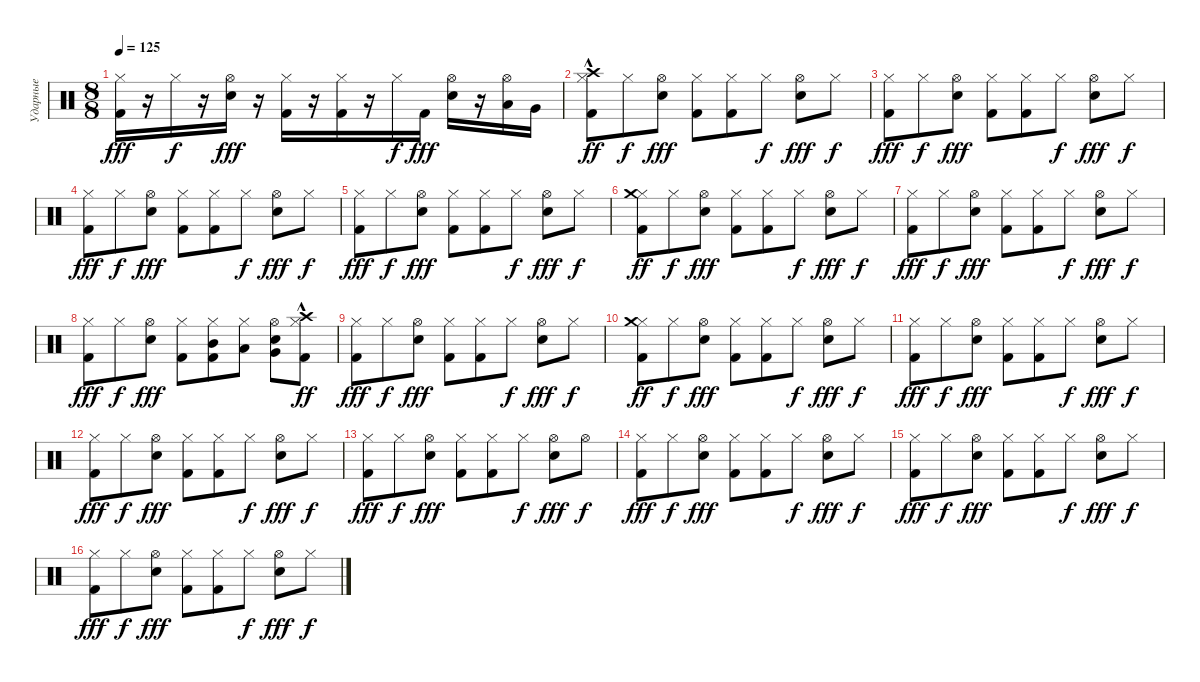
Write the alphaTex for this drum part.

\track ("Ударные" "Ударные") {instrument percussion}
\staff {score}
\articulation defaults
\ts (8 8)
\tempo 125
\clef neutral
\ks c
("Kick (hit) 2" "Hi-Hat (closed)").16{dy fff} r.16 "Hi-Hat (closed)".16{dy f} r.16 ("Hi-Hat (open)" "Snare (hit) 2").16{dy fff} r.16 ("Kick (hit) 2" "Hi-Hat (closed)").16 r.16 ("Kick (hit) 2" "Hi-Hat (closed)").16 r.16 "Hi-Hat (closed)".16{dy f} "Kick (hit) 2".16{dy fff} ("Hi-Hat (open)" "Snare (hit) 2").16 r.16 ("Hi-Hat (open)" "Low Tom (hit)").16 "Very Low Tom (hit)".16 |
("Kick (hit) 2" "Hi-Hat (closed)" "Crash high (hit)"{hac}).8{dy ff} "Hi-Hat (closed)".8{dy f} ("Hi-Hat (open)" "Snare (hit) 2").8{dy fff} ("Kick (hit) 2" "Hi-Hat (closed)").8 ("Kick (hit) 2" "Hi-Hat (closed)").8 "Hi-Hat (closed)".8{dy f} ("Hi-Hat (open)" "Snare (hit) 2").8{dy fff} "Hi-Hat (closed)".8{dy f} |
("Kick (hit) 2" "Hi-Hat (closed)").8{dy fff} "Hi-Hat (closed)".8{dy f} ("Hi-Hat (open)" "Snare (hit) 2").8{dy fff} ("Kick (hit) 2" "Hi-Hat (closed)").8 ("Kick (hit) 2" "Hi-Hat (closed)").8 "Hi-Hat (closed)".8{dy f} ("Hi-Hat (open)" "Snare (hit) 2").8{dy fff} "Hi-Hat (closed)".8{dy f} |
("Kick (hit) 2" "Hi-Hat (closed)").8{dy fff} "Hi-Hat (closed)".8{dy f} ("Hi-Hat (open)" "Snare (hit) 2").8{dy fff} ("Kick (hit) 2" "Hi-Hat (closed)").8 ("Kick (hit) 2" "Hi-Hat (closed)").8 "Hi-Hat (closed)".8{dy f} ("Hi-Hat (open)" "Snare (hit) 2").8{dy fff} "Hi-Hat (closed)".8{dy f} |
("Kick (hit) 2" "Hi-Hat (closed)").8{dy fff} "Hi-Hat (closed)".8{dy f} ("Hi-Hat (open)" "Snare (hit) 2").8{dy fff} ("Kick (hit) 2" "Hi-Hat (closed)").8 ("Kick (hit) 2" "Hi-Hat (closed)").8 "Hi-Hat (closed)".8{dy f} ("Hi-Hat (open)" "Snare (hit) 2").8{dy fff} "Hi-Hat (closed)".8{dy f} |
("Kick (hit) 2" "Hi-Hat (closed)" "Crash medium (hit)").8{dy ff} "Hi-Hat (closed)".8{dy f} ("Hi-Hat (open)" "Snare (hit) 2").8{dy fff} ("Kick (hit) 2" "Hi-Hat (closed)").8 ("Kick (hit) 2" "Hi-Hat (closed)").8 "Hi-Hat (closed)".8{dy f} ("Hi-Hat (open)" "Snare (hit) 2").8{dy fff} "Hi-Hat (closed)".8{dy f} |
("Kick (hit) 2" "Hi-Hat (closed)").8{dy fff} "Hi-Hat (closed)".8{dy f} ("Hi-Hat (open)" "Snare (hit) 2").8{dy fff} ("Kick (hit) 2" "Hi-Hat (closed)").8 ("Kick (hit) 2" "Hi-Hat (closed)").8 "Hi-Hat (closed)".8{dy f} ("Hi-Hat (open)" "Snare (hit) 2").8{dy fff} "Hi-Hat (closed)".8{dy f} |
("Kick (hit) 2" "Hi-Hat (closed)").8{dy fff} "Hi-Hat (closed)".8{dy f} ("Hi-Hat (open)" "Snare (hit) 2").8{dy fff} ("Kick (hit) 2" "Hi-Hat (closed)").8 ("Kick (hit) 2" "Hi-Hat (closed)" "Mid Tom (hit)").8 ("Hi-Hat (closed)" "Low Tom (hit)").8 ("Hi-Hat (open)" "Snare (hit) 2" "Very Low Tom (hit)").8 ("Kick (hit) 2" "Hi-Hat (closed)" "Crash high (hit)"{hac}).8{dy ff} |
("Kick (hit) 2" "Hi-Hat (closed)").8{dy fff} "Hi-Hat (closed)".8{dy f} ("Hi-Hat (open)" "Snare (hit) 2").8{dy fff} ("Kick (hit) 2" "Hi-Hat (closed)").8 ("Kick (hit) 2" "Hi-Hat (closed)").8 "Hi-Hat (closed)".8{dy f} ("Hi-Hat (open)" "Snare (hit) 2").8{dy fff} "Hi-Hat (closed)".8{dy f} |
("Kick (hit) 2" "Hi-Hat (closed)" "Crash medium (hit)").8{dy ff} "Hi-Hat (closed)".8{dy f} ("Hi-Hat (open)" "Snare (hit) 2").8{dy fff} ("Kick (hit) 2" "Hi-Hat (closed)").8 ("Kick (hit) 2" "Hi-Hat (closed)").8 "Hi-Hat (closed)".8{dy f} ("Hi-Hat (open)" "Snare (hit) 2").8{dy fff} "Hi-Hat (closed)".8{dy f} |
("Kick (hit) 2" "Hi-Hat (closed)").8{dy fff} "Hi-Hat (closed)".8{dy f} ("Hi-Hat (open)" "Snare (hit) 2").8{dy fff} ("Kick (hit) 2" "Hi-Hat (closed)").8 ("Kick (hit) 2" "Hi-Hat (closed)").8 "Hi-Hat (closed)".8{dy f} ("Hi-Hat (open)" "Snare (hit) 2").8{dy fff} "Hi-Hat (closed)".8{dy f} |
("Kick (hit) 2" "Hi-Hat (closed)").8{dy fff} "Hi-Hat (closed)".8{dy f} ("Hi-Hat (open)" "Snare (hit) 2").8{dy fff} ("Kick (hit) 2" "Hi-Hat (closed)").8 ("Kick (hit) 2" "Hi-Hat (closed)").8 "Hi-Hat (closed)".8{dy f} ("Hi-Hat (open)" "Snare (hit) 2").8{dy fff} "Hi-Hat (closed)".8{dy f} |
("Kick (hit) 2" "Hi-Hat (closed)").8{dy fff} "Hi-Hat (closed)".8{dy f} ("Hi-Hat (open)" "Snare (hit) 2").8{dy fff} ("Kick (hit) 2" "Hi-Hat (closed)").8 ("Kick (hit) 2" "Hi-Hat (closed)").8 "Hi-Hat (closed)".8{dy f} ("Hi-Hat (open)" "Snare (hit) 2").8{dy fff} "Hi-Hat (open)".8{dy f} |
("Kick (hit) 2" "Hi-Hat (closed)").8{dy fff} "Hi-Hat (closed)".8{dy f} ("Hi-Hat (open)" "Snare (hit) 2").8{dy fff} ("Kick (hit) 2" "Hi-Hat (closed)").8 ("Kick (hit) 2" "Hi-Hat (closed)").8 "Hi-Hat (closed)".8{dy f} ("Hi-Hat (open)" "Snare (hit) 2").8{dy fff} "Hi-Hat (closed)".8{dy f} |
("Kick (hit) 2" "Hi-Hat (closed)").8{dy fff} "Hi-Hat (closed)".8{dy f} ("Hi-Hat (open)" "Snare (hit) 2").8{dy fff} ("Kick (hit) 2" "Hi-Hat (closed)").8 ("Kick (hit) 2" "Hi-Hat (closed)").8 "Hi-Hat (closed)".8{dy f} ("Hi-Hat (open)" "Snare (hit) 2").8{dy fff} "Hi-Hat (closed)".8{dy f} |
("Kick (hit) 2" "Hi-Hat (closed)").8{dy fff} "Hi-Hat (closed)".8{dy f} ("Hi-Hat (open)" "Snare (hit) 2").8{dy fff} ("Kick (hit) 2" "Hi-Hat (closed)").8 ("Kick (hit) 2" "Hi-Hat (closed)").8 "Hi-Hat (closed)".8{dy f} ("Hi-Hat (open)" "Snare (hit) 2").8{dy fff} "Hi-Hat (closed)".8{dy f}
